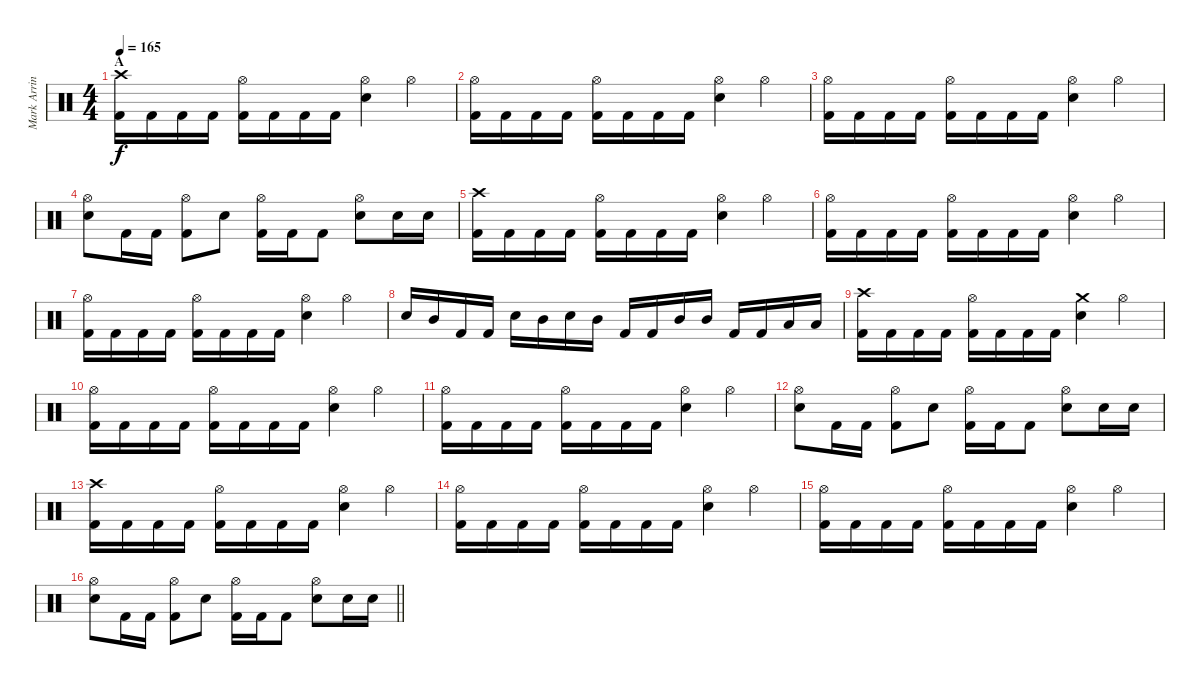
\track ("Mark Arrington Drums" "Mark Arrin") {instrument percussion}
\staff {score}
\articulation defaults
\ts (4 4)
\section ("" "A")
\tempo 165
\clef neutral
\ks c
("Crash high (hit)" "Kick (hit) 2").16{dy f} "Kick (hit) 2".16 "Kick (hit) 2".16 "Kick (hit) 2".16 ("Hi-Hat (open)" "Kick (hit) 2").16 "Kick (hit) 2".16 "Kick (hit) 2".16 "Kick (hit) 2".16 ("Hi-Hat (open)" "Electric Snare (hit)").4 "Hi-Hat (open)".4 |
("Hi-Hat (open)" "Kick (hit) 2").16 "Kick (hit) 2".16 "Kick (hit) 2".16 "Kick (hit) 2".16 ("Hi-Hat (open)" "Kick (hit) 2").16 "Kick (hit) 2".16 "Kick (hit) 2".16 "Kick (hit) 2".16 ("Hi-Hat (open)" "Electric Snare (hit)").4 "Hi-Hat (open)".4 |
("Hi-Hat (open)" "Kick (hit) 2").16 "Kick (hit) 2".16 "Kick (hit) 2".16 "Kick (hit) 2".16 ("Hi-Hat (open)" "Kick (hit) 2").16 "Kick (hit) 2".16 "Kick (hit) 2".16 "Kick (hit) 2".16 ("Hi-Hat (open)" "Electric Snare (hit)").4 "Hi-Hat (open)".4 |
("Hi-Hat (open)" "Electric Snare (hit)").8 "Kick (hit) 2".16 "Kick (hit) 2".16 ("Hi-Hat (open)" "Kick (hit) 2").8 "Electric Snare (hit)".8 ("Hi-Hat (open)" "Kick (hit) 2").16 "Kick (hit) 2".16 "Kick (hit) 2".8 ("Hi-Hat (open)" "Electric Snare (hit)").8 "Electric Snare (hit)".16 "Electric Snare (hit)".16 |
("Crash high (hit)" "Kick (hit) 2").16 "Kick (hit) 2".16 "Kick (hit) 2".16 "Kick (hit) 2".16 ("Hi-Hat (open)" "Kick (hit) 2").16 "Kick (hit) 2".16 "Kick (hit) 2".16 "Kick (hit) 2".16 ("Hi-Hat (open)" "Electric Snare (hit)").4 "Hi-Hat (open)".4 |
("Hi-Hat (open)" "Kick (hit) 2").16 "Kick (hit) 2".16 "Kick (hit) 2".16 "Kick (hit) 2".16 ("Hi-Hat (open)" "Kick (hit) 2").16 "Kick (hit) 2".16 "Kick (hit) 2".16 "Kick (hit) 2".16 ("Hi-Hat (open)" "Electric Snare (hit)").4 "Hi-Hat (open)".4 |
("Hi-Hat (open)" "Kick (hit) 2").16 "Kick (hit) 2".16 "Kick (hit) 2".16 "Kick (hit) 2".16 ("Hi-Hat (open)" "Kick (hit) 2").16 "Kick (hit) 2".16 "Kick (hit) 2".16 "Kick (hit) 2".16 ("Hi-Hat (open)" "Electric Snare (hit)").4 "Hi-Hat (open)".4 |
"Electric Snare (hit)".16 "Mid Tom (hit)".16 "Kick (hit) 2".16 "Kick (hit) 2".16 "Electric Snare (hit)".16 "Mid Tom (hit)".16 "Electric Snare (hit)".16 "Mid Tom (hit)".16 "Kick (hit) 2".16 "Kick (hit) 2".16 "Mid Tom (hit)".16 "Mid Tom (hit)".16 "Kick (hit) 2".16 "Kick (hit) 2".16 "Low Tom (hit)".16 "Low Tom (hit)".16 |
("Crash high (hit)" "Kick (hit) 2").16 "Kick (hit) 2".16 "Kick (hit) 2".16 "Kick (hit) 2".16 ("Hi-Hat (open)" "Kick (hit) 2").16 "Kick (hit) 2".16 "Kick (hit) 2".16 "Kick (hit) 2".16 ("Crash medium (hit)" "Electric Snare (hit)").4 "Hi-Hat (open)".4 |
("Hi-Hat (open)" "Kick (hit) 2").16 "Kick (hit) 2".16 "Kick (hit) 2".16 "Kick (hit) 2".16 ("Hi-Hat (open)" "Kick (hit) 2").16 "Kick (hit) 2".16 "Kick (hit) 2".16 "Kick (hit) 2".16 ("Hi-Hat (open)" "Electric Snare (hit)").4 "Hi-Hat (open)".4 |
("Hi-Hat (open)" "Kick (hit) 2").16 "Kick (hit) 2".16 "Kick (hit) 2".16 "Kick (hit) 2".16 ("Hi-Hat (open)" "Kick (hit) 2").16 "Kick (hit) 2".16 "Kick (hit) 2".16 "Kick (hit) 2".16 ("Hi-Hat (open)" "Electric Snare (hit)").4 "Hi-Hat (open)".4 |
("Hi-Hat (open)" "Electric Snare (hit)").8 "Kick (hit) 2".16 "Kick (hit) 2".16 ("Hi-Hat (open)" "Kick (hit) 2").8 "Electric Snare (hit)".8 ("Hi-Hat (open)" "Kick (hit) 2").16 "Kick (hit) 2".16 "Kick (hit) 2".8 ("Hi-Hat (open)" "Electric Snare (hit)").8 "Electric Snare (hit)".16 "Electric Snare (hit)".16 |
("Crash high (hit)" "Kick (hit) 2").16 "Kick (hit) 2".16 "Kick (hit) 2".16 "Kick (hit) 2".16 ("Hi-Hat (open)" "Kick (hit) 2").16 "Kick (hit) 2".16 "Kick (hit) 2".16 "Kick (hit) 2".16 ("Hi-Hat (open)" "Electric Snare (hit)").4 "Hi-Hat (open)".4 |
("Hi-Hat (open)" "Kick (hit) 2").16 "Kick (hit) 2".16 "Kick (hit) 2".16 "Kick (hit) 2".16 ("Hi-Hat (open)" "Kick (hit) 2").16 "Kick (hit) 2".16 "Kick (hit) 2".16 "Kick (hit) 2".16 ("Hi-Hat (open)" "Electric Snare (hit)").4 "Hi-Hat (open)".4 |
("Hi-Hat (open)" "Kick (hit) 2").16 "Kick (hit) 2".16 "Kick (hit) 2".16 "Kick (hit) 2".16 ("Hi-Hat (open)" "Kick (hit) 2").16 "Kick (hit) 2".16 "Kick (hit) 2".16 "Kick (hit) 2".16 ("Hi-Hat (open)" "Electric Snare (hit)").4 "Hi-Hat (open)".4 |
\barLineRight lightlight
("Hi-Hat (open)" "Electric Snare (hit)").8 "Kick (hit) 2".16 "Kick (hit) 2".16 ("Hi-Hat (open)" "Kick (hit) 2").8 "Electric Snare (hit)".8 ("Hi-Hat (open)" "Kick (hit) 2").16 "Kick (hit) 2".16 "Kick (hit) 2".8 ("Hi-Hat (open)" "Electric Snare (hit)").8 "Electric Snare (hit)".16 "Electric Snare (hit)".16
